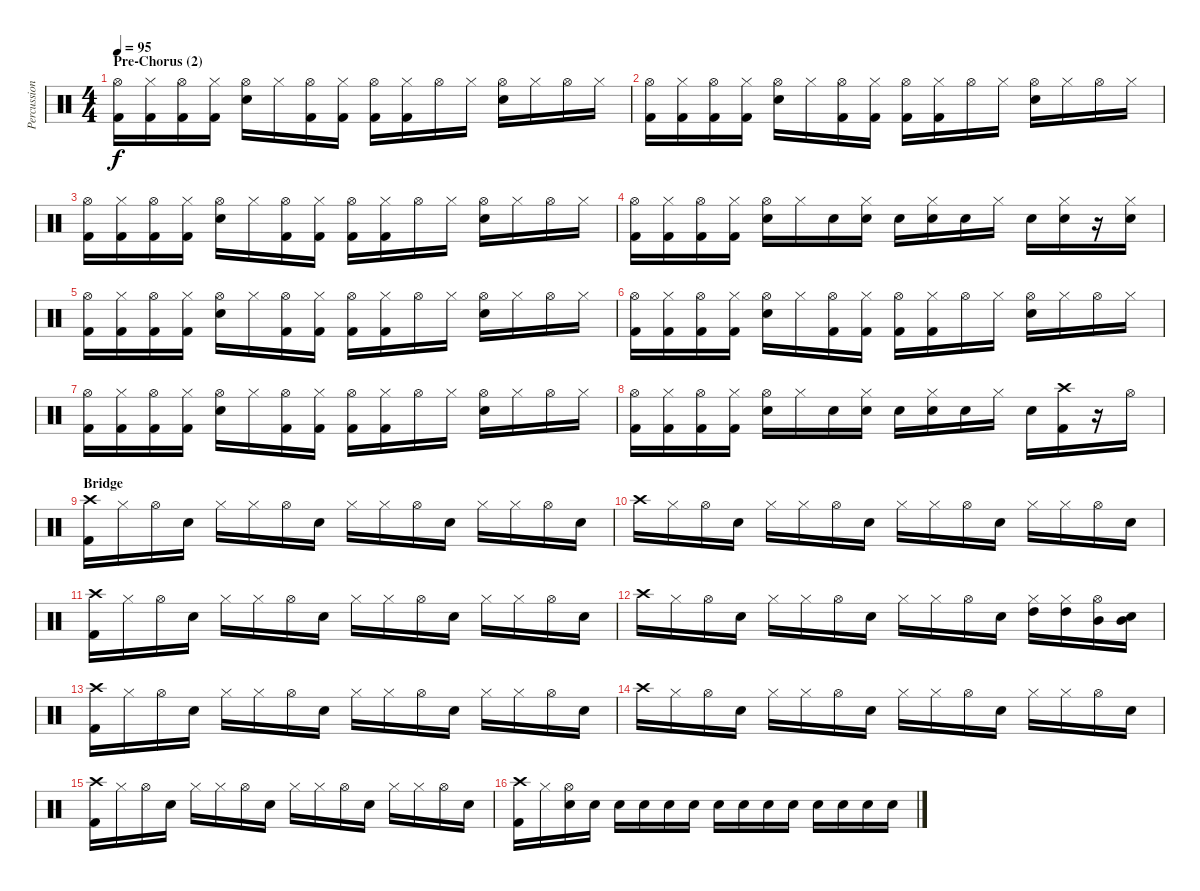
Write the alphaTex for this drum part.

\track ("Percussion" "Percussion") {instrument percussion}
\staff {score}
\articulation defaults
\ts (4 4)
\section ("" "Pre-Chorus (2)")
\tempo 95
\clef neutral
\ks c
("Kick (hit) 2" "Hi-Hat (open)").16{dy f} ("Kick (hit) 2" "Hi-Hat (closed)"{x}).16 ("Kick (hit) 2" "Hi-Hat (open)").16 ("Kick (hit) 2" "Hi-Hat (closed)"{x}).16 ("Snare (hit) 2" "Hi-Hat (open)").16 "Hi-Hat (closed)"{x}.16 ("Kick (hit) 2" "Hi-Hat (open)").16 ("Kick (hit) 2" "Hi-Hat (closed)"{x}).16 ("Kick (hit) 2" "Hi-Hat (open)").16 ("Kick (hit) 2" "Hi-Hat (closed)"{x}).16 "Hi-Hat (open)".16 "Hi-Hat (closed)"{x}.16 ("Snare (hit) 2" "Hi-Hat (open)").16 "Hi-Hat (closed)"{x}.16 "Hi-Hat (open)".16 "Hi-Hat (closed)"{x}.16 |
("Kick (hit) 2" "Hi-Hat (open)").16 ("Kick (hit) 2" "Hi-Hat (closed)"{x}).16 ("Kick (hit) 2" "Hi-Hat (open)").16 ("Kick (hit) 2" "Hi-Hat (closed)"{x}).16 ("Snare (hit) 2" "Hi-Hat (open)").16 "Hi-Hat (closed)"{x}.16 ("Kick (hit) 2" "Hi-Hat (open)").16 ("Kick (hit) 2" "Hi-Hat (closed)"{x}).16 ("Kick (hit) 2" "Hi-Hat (open)").16 ("Kick (hit) 2" "Hi-Hat (closed)"{x}).16 "Hi-Hat (open)".16 "Hi-Hat (closed)"{x}.16 ("Snare (hit) 2" "Hi-Hat (open)").16 "Hi-Hat (closed)"{x}.16 "Hi-Hat (open)".16 "Hi-Hat (closed)"{x}.16 |
("Kick (hit) 2" "Hi-Hat (open)").16 ("Kick (hit) 2" "Hi-Hat (closed)"{x}).16 ("Kick (hit) 2" "Hi-Hat (open)").16 ("Kick (hit) 2" "Hi-Hat (closed)"{x}).16 ("Snare (hit) 2" "Hi-Hat (open)").16 "Hi-Hat (closed)"{x}.16 ("Kick (hit) 2" "Hi-Hat (open)").16 ("Kick (hit) 2" "Hi-Hat (closed)"{x}).16 ("Kick (hit) 2" "Hi-Hat (open)").16 ("Kick (hit) 2" "Hi-Hat (closed)"{x}).16 "Hi-Hat (open)".16 "Hi-Hat (closed)"{x}.16 ("Snare (hit) 2" "Hi-Hat (open)").16 "Hi-Hat (closed)"{x}.16 "Hi-Hat (open)".16 "Hi-Hat (closed)"{x}.16 |
("Kick (hit) 2" "Hi-Hat (open)").16 ("Kick (hit) 2" "Hi-Hat (closed)"{x}).16 ("Kick (hit) 2" "Hi-Hat (open)").16 ("Kick (hit) 2" "Hi-Hat (closed)"{x}).16 ("Snare (hit) 2" "Hi-Hat (open)").16 "Hi-Hat (closed)"{x}.16 "Snare (hit) 2".16 ("Snare (hit) 2" "Hi-Hat (closed)"{x}).16 "Snare (hit) 2".16 ("Snare (hit) 2" "Hi-Hat (closed)"{x}).16 "Snare (hit) 2".16 "Hi-Hat (closed)"{x}.16 "Snare (hit) 2".16 ("Snare (hit) 2" "Hi-Hat (closed)"{x}).16 r.16 ("Snare (hit) 2" "Hi-Hat (closed)"{x}).16 |
("Kick (hit) 2" "Hi-Hat (open)").16 ("Kick (hit) 2" "Hi-Hat (closed)"{x}).16 ("Kick (hit) 2" "Hi-Hat (open)").16 ("Kick (hit) 2" "Hi-Hat (closed)"{x}).16 ("Snare (hit) 2" "Hi-Hat (open)").16 "Hi-Hat (closed)"{x}.16 ("Kick (hit) 2" "Hi-Hat (open)").16 ("Kick (hit) 2" "Hi-Hat (closed)"{x}).16 ("Kick (hit) 2" "Hi-Hat (open)").16 ("Kick (hit) 2" "Hi-Hat (closed)"{x}).16 "Hi-Hat (open)".16 "Hi-Hat (closed)"{x}.16 ("Snare (hit) 2" "Hi-Hat (open)").16 "Hi-Hat (closed)"{x}.16 "Hi-Hat (open)".16 "Hi-Hat (closed)"{x}.16 |
("Kick (hit) 2" "Hi-Hat (open)").16 ("Kick (hit) 2" "Hi-Hat (closed)"{x}).16 ("Kick (hit) 2" "Hi-Hat (open)").16 ("Kick (hit) 2" "Hi-Hat (closed)"{x}).16 ("Snare (hit) 2" "Hi-Hat (open)").16 "Hi-Hat (closed)"{x}.16 ("Kick (hit) 2" "Hi-Hat (open)").16 ("Kick (hit) 2" "Hi-Hat (closed)"{x}).16 ("Kick (hit) 2" "Hi-Hat (open)").16 ("Kick (hit) 2" "Hi-Hat (closed)"{x}).16 "Hi-Hat (open)".16 "Hi-Hat (closed)"{x}.16 ("Snare (hit) 2" "Hi-Hat (open)").16 "Hi-Hat (closed)"{x}.16 "Hi-Hat (open)".16 "Hi-Hat (closed)"{x}.16 |
("Kick (hit) 2" "Hi-Hat (open)").16 ("Kick (hit) 2" "Hi-Hat (closed)"{x}).16 ("Kick (hit) 2" "Hi-Hat (open)").16 ("Kick (hit) 2" "Hi-Hat (closed)"{x}).16 ("Snare (hit) 2" "Hi-Hat (open)").16 "Hi-Hat (closed)"{x}.16 ("Kick (hit) 2" "Hi-Hat (open)").16 ("Kick (hit) 2" "Hi-Hat (closed)"{x}).16 ("Kick (hit) 2" "Hi-Hat (open)").16 ("Kick (hit) 2" "Hi-Hat (closed)"{x}).16 "Hi-Hat (open)".16 "Hi-Hat (closed)"{x}.16 ("Snare (hit) 2" "Hi-Hat (open)").16 "Hi-Hat (closed)"{x}.16 "Hi-Hat (open)".16 "Hi-Hat (closed)"{x}.16 |
("Kick (hit) 2" "Hi-Hat (open)").16 ("Kick (hit) 2" "Hi-Hat (closed)"{x}).16 ("Kick (hit) 2" "Hi-Hat (open)").16 ("Kick (hit) 2" "Hi-Hat (closed)"{x}).16 ("Snare (hit) 2" "Hi-Hat (open)").16 "Hi-Hat (closed)"{x}.16 "Snare (hit) 2".16 ("Snare (hit) 2" "Hi-Hat (closed)"{x}).16 "Snare (hit) 2".16 ("Snare (hit) 2" "Hi-Hat (closed)"{x}).16 "Snare (hit) 2".16 "Hi-Hat (closed)"{x}.16 "Snare (hit) 2".16 ("Kick (hit) 2" "Crash high (hit)").16 r.16 "Hi-Hat (open)"{x}.16 |
\section ("" "Bridge")
("Crash high (hit)" "Kick (hit) 2").16 "Hi-Hat (closed)".16 "Hi-Hat (open)".16 "Snare (hit)"{x}.16 "Hi-Hat (closed)".16 "Hi-Hat (closed)".16 "Hi-Hat (open)".16 "Snare (hit)"{x}.16 "Hi-Hat (closed)".16 "Hi-Hat (closed)".16 "Hi-Hat (open)".16 "Snare (hit)"{x}.16 "Hi-Hat (closed)".16 "Hi-Hat (closed)".16 "Hi-Hat (open)".16 "Snare (hit)"{x}.16 |
"Crash high (hit)".16 "Hi-Hat (closed)".16 "Hi-Hat (open)".16 "Snare (hit)"{x}.16 "Hi-Hat (closed)".16 "Hi-Hat (closed)".16 "Hi-Hat (open)".16 "Snare (hit)"{x}.16 "Hi-Hat (closed)".16 "Hi-Hat (closed)".16 "Hi-Hat (open)".16 "Snare (hit)"{x}.16 "Hi-Hat (closed)".16 "Hi-Hat (closed)".16 "Hi-Hat (open)".16 "Snare (hit)"{x}.16 |
("Crash high (hit)" "Kick (hit) 2").16 "Hi-Hat (closed)".16 "Hi-Hat (open)".16 "Snare (hit)"{x}.16 "Hi-Hat (closed)".16 "Hi-Hat (closed)".16 "Hi-Hat (open)".16 "Snare (hit)"{x}.16 "Hi-Hat (closed)".16 "Hi-Hat (closed)".16 "Hi-Hat (open)".16 "Snare (hit)"{x}.16 "Hi-Hat (closed)".16 "Hi-Hat (closed)".16 "Hi-Hat (open)".16 "Snare (hit)"{x}.16 |
"Crash high (hit)".16 "Hi-Hat (closed)".16 "Hi-Hat (open)".16 "Snare (hit)"{x}.16 "Hi-Hat (closed)".16 "Hi-Hat (closed)".16 "Hi-Hat (open)".16 "Snare (hit)"{x}.16 "Hi-Hat (closed)".16 "Hi-Hat (closed)".16 "Hi-Hat (open)".16 "Snare (hit)"{x}.16 ("Hi-Hat (closed)" "High Tom (hit)").16 ("Hi-Hat (closed)" "High Tom (hit)").16 ("Hi-Hat (open)" "Mid Tom (hit)").16 ("Snare (hit)"{x} "Mid Tom (hit)").16 |
("Crash high (hit)" "Kick (hit) 2").16 "Hi-Hat (closed)".16 "Hi-Hat (open)".16 "Snare (hit)"{x}.16 "Hi-Hat (closed)".16 "Hi-Hat (closed)".16 "Hi-Hat (open)".16 "Snare (hit)"{x}.16 "Hi-Hat (closed)".16 "Hi-Hat (closed)".16 "Hi-Hat (open)".16 "Snare (hit)"{x}.16 "Hi-Hat (closed)".16 "Hi-Hat (closed)".16 "Hi-Hat (open)".16 "Snare (hit)"{x}.16 |
"Crash high (hit)".16 "Hi-Hat (closed)".16 "Hi-Hat (open)".16 "Snare (hit)"{x}.16 "Hi-Hat (closed)".16 "Hi-Hat (closed)".16 "Hi-Hat (open)".16 "Snare (hit)"{x}.16 "Hi-Hat (closed)".16 "Hi-Hat (closed)".16 "Hi-Hat (open)".16 "Snare (hit)"{x}.16 "Hi-Hat (closed)".16 "Hi-Hat (closed)".16 "Hi-Hat (open)".16 "Snare (hit)"{x}.16 |
("Crash high (hit)" "Kick (hit) 2").16 "Hi-Hat (closed)".16 "Hi-Hat (open)".16 "Snare (hit)"{x}.16 "Hi-Hat (closed)".16 "Hi-Hat (closed)".16 "Hi-Hat (open)".16 "Snare (hit)"{x}.16 "Hi-Hat (closed)".16 "Hi-Hat (closed)".16 "Hi-Hat (open)".16 "Snare (hit)"{x}.16 "Hi-Hat (closed)".16 "Hi-Hat (closed)".16 "Hi-Hat (open)".16 "Snare (hit)"{x}.16 |
("Crash high (hit)" "Kick (hit) 2").16 "Hi-Hat (closed)".16 ("Hi-Hat (open)" "Snare (hit) 2").16 "Snare (hit) 2".16 "Snare (hit) 2".16 "Snare (hit) 2".16 "Snare (hit) 2".16 "Snare (hit) 2".16 "Snare (hit) 2".16 "Snare (hit) 2".16 "Snare (hit) 2".16 "Snare (hit) 2".16 "Snare (hit) 2".16 "Snare (hit) 2".16 "Snare (hit) 2".16 "Snare (hit) 2".16
